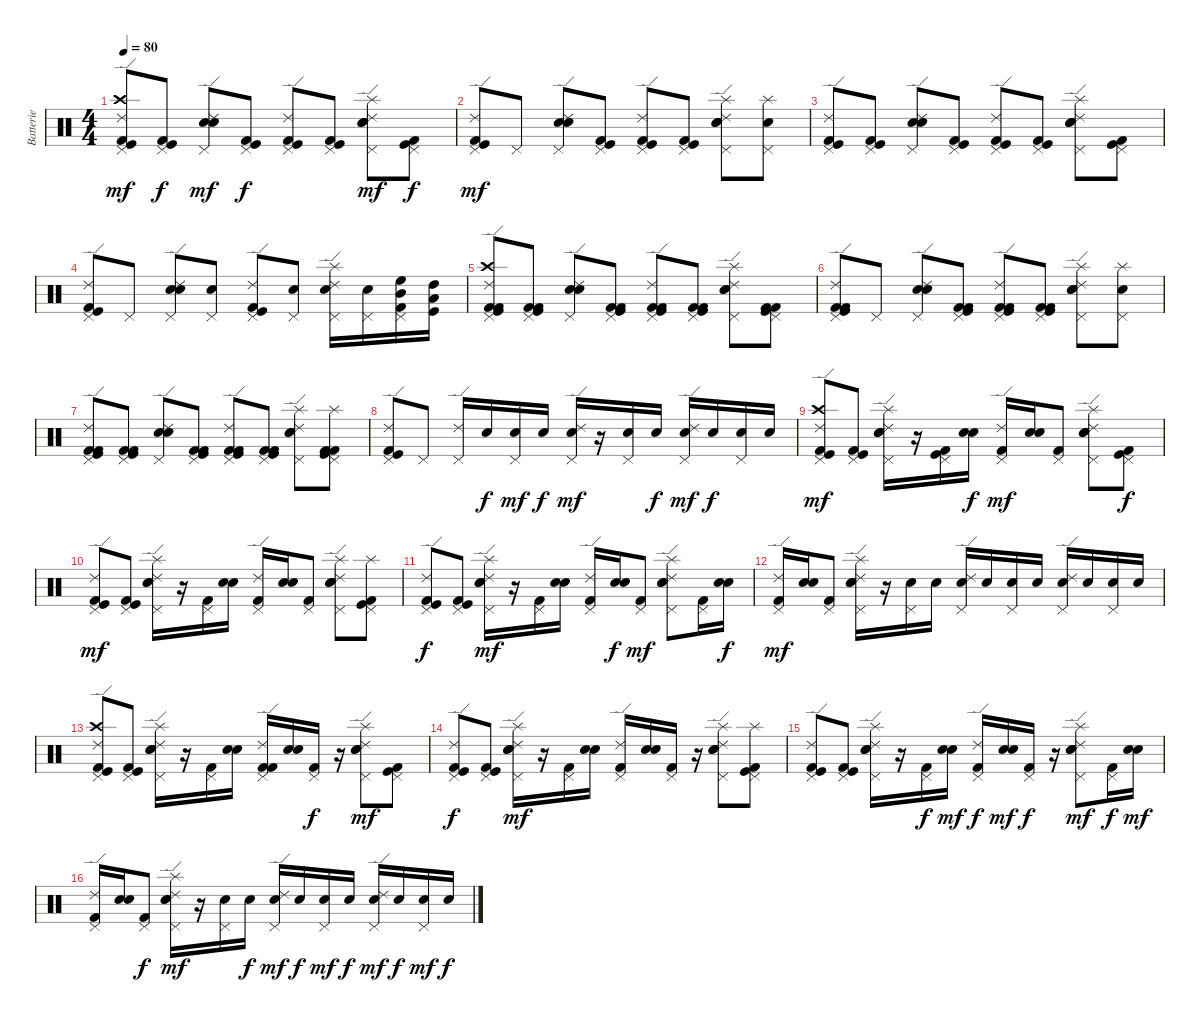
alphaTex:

\track ("Batterie" "Batterie") {instrument percussion}
\staff {score}
\articulation defaults
\ts (4 4)
\tempo 80
\clef neutral
\ks c
("Pedal Hi-Hat (hit)" "Ride (edge) 2" "Crash high (hit)" "Kick (hit)" "Kick (hit) 2").8{dy mf} ("Pedal Hi-Hat (hit)" "Kick (hit)" "Kick (hit) 2").8{dy f} ("Pedal Hi-Hat (hit)" "Ride (edge) 2" "Snare (hit) 2" "Electric Snare (hit)").8{dy mf} ("Pedal Hi-Hat (hit)" "Kick (hit)" "Kick (hit) 2").8{dy f} ("Pedal Hi-Hat (hit)" "Ride (edge) 2" "Kick (hit)" "Kick (hit) 2").8 ("Pedal Hi-Hat (hit)" "Kick (hit)" "Kick (hit) 2").8 ("Pedal Hi-Hat (hit)" "Ride (edge) 2" "Snare (hit) 2" "Electric Snare (hit)" "Splash (hit)").8{dy mf} ("Pedal Hi-Hat (hit)" "Kick (hit)" "Kick (hit) 2").8{dy f} |
("Pedal Hi-Hat (hit)" "Ride (edge) 2" "Kick (hit)" "Kick (hit) 2").8{dy mf} "Pedal Hi-Hat (hit)".8 ("Pedal Hi-Hat (hit)" "Ride (edge) 2" "Snare (hit) 2" "Electric Snare (hit)").8 ("Pedal Hi-Hat (hit)" "Kick (hit)" "Kick (hit) 2").8 ("Pedal Hi-Hat (hit)" "Ride (edge) 2" "Kick (hit)" "Kick (hit) 2").8 ("Pedal Hi-Hat (hit)" "Kick (hit)" "Kick (hit) 2").8 ("Pedal Hi-Hat (hit)" "Ride (edge) 2" "Snare (hit) 2" "Electric Snare (hit)" "Splash (hit)").8 ("Pedal Hi-Hat (hit)" "Splash (hit)" "Snare (hit) 2").8 |
("Pedal Hi-Hat (hit)" "Ride (edge) 2" "Kick (hit)" "Kick (hit) 2").8 ("Pedal Hi-Hat (hit)" "Kick (hit)" "Kick (hit) 2").8 ("Pedal Hi-Hat (hit)" "Ride (edge) 2" "Snare (hit) 2" "Electric Snare (hit)").8 ("Pedal Hi-Hat (hit)" "Kick (hit)" "Kick (hit) 2").8 ("Pedal Hi-Hat (hit)" "Ride (edge) 2" "Kick (hit)" "Kick (hit) 2").8 ("Pedal Hi-Hat (hit)" "Kick (hit)" "Kick (hit) 2").8 ("Pedal Hi-Hat (hit)" "Ride (edge) 2" "Snare (hit) 2" "Electric Snare (hit)" "Splash (hit)").8 ("Pedal Hi-Hat (hit)" "Kick (hit)" "Kick (hit) 2").8 |
("Pedal Hi-Hat (hit)" "Ride (edge) 2" "Kick (hit)" "Kick (hit) 2").8 "Pedal Hi-Hat (hit)".8 ("Pedal Hi-Hat (hit)" "Ride (edge) 2" "Snare (hit) 2" "Electric Snare (hit)").8 ("Pedal Hi-Hat (hit)" "Snare (hit) 2").8 ("Pedal Hi-Hat (hit)" "Ride (edge) 2" "Kick (hit)" "Kick (hit) 2").8 ("Pedal Hi-Hat (hit)" "Snare (hit) 2").8 ("Pedal Hi-Hat (hit)" "Ride (edge) 2" "Snare (hit) 2" "Splash (hit)").16 ("Pedal Hi-Hat (hit)" "Snare (hit) 2").16 ("Pedal Hi-Hat (hit)" "Mid Tom (hit)" "High Floor Tom (hit)" "Kick (hit) 2").16 ("High Tom (hit)" "Low Tom (hit)" "Kick (hit)").16 |
("Pedal Hi-Hat (hit)" "Ride (edge) 2" "Kick (hit) 2" "Kick (hit)" "Crash high (hit)" "Kick (hit) 2").8 ("Pedal Hi-Hat (hit)" "Kick (hit)" "Kick (hit) 2" "Kick (hit) 2").8 ("Pedal Hi-Hat (hit)" "Ride (edge) 2" "Snare (hit) 2" "Electric Snare (hit)").8 ("Pedal Hi-Hat (hit)" "Kick (hit)" "Kick (hit) 2" "Kick (hit) 2").8 ("Pedal Hi-Hat (hit)" "Ride (edge) 2" "Kick (hit)" "Kick (hit) 2" "Kick (hit) 2").8 ("Pedal Hi-Hat (hit)" "Kick (hit)" "Kick (hit) 2" "Kick (hit) 2").8 ("Pedal Hi-Hat (hit)" "Ride (edge) 2" "Snare (hit) 2" "Electric Snare (hit)" "Splash (hit)").8 ("Pedal Hi-Hat (hit)" "Kick (hit)" "Kick (hit) 2" "Kick (hit) 2").8 |
("Kick (hit)" "Kick (hit) 2" "Ride (edge) 2" "Pedal Hi-Hat (hit)" "Kick (hit) 2").8 "Pedal Hi-Hat (hit)".8 ("Electric Snare (hit)" "Snare (hit) 2" "Ride (edge) 2" "Pedal Hi-Hat (hit)").8 ("Kick (hit) 2" "Kick (hit)" "Pedal Hi-Hat (hit)" "Kick (hit) 2").8 ("Kick (hit) 2" "Kick (hit)" "Ride (edge) 2" "Pedal Hi-Hat (hit)" "Kick (hit) 2").8 ("Kick (hit) 2" "Kick (hit)" "Pedal Hi-Hat (hit)" "Kick (hit) 2").8 ("Electric Snare (hit)" "Snare (hit) 2" "Ride (edge) 2" "Pedal Hi-Hat (hit)" "Splash (hit)").8 ("Pedal Hi-Hat (hit)" "Snare (hit) 2" "Splash (hit)").8 |
("Kick (hit)" "Kick (hit) 2" "Ride (edge) 2" "Pedal Hi-Hat (hit)" "Kick (hit) 2").8 ("Kick (hit) 2" "Kick (hit)" "Pedal Hi-Hat (hit)" "Kick (hit) 2").8 ("Electric Snare (hit)" "Snare (hit) 2" "Ride (edge) 2" "Pedal Hi-Hat (hit)").8 ("Kick (hit) 2" "Kick (hit)" "Pedal Hi-Hat (hit)" "Kick (hit) 2").8 ("Kick (hit) 2" "Kick (hit)" "Ride (edge) 2" "Pedal Hi-Hat (hit)" "Kick (hit) 2").8 ("Kick (hit) 2" "Kick (hit)" "Pedal Hi-Hat (hit)" "Kick (hit) 2").8 ("Splash (hit)" "Electric Snare (hit)" "Snare (hit) 2" "Ride (edge) 2" "Pedal Hi-Hat (hit)").8 ("Splash (hit)" "Kick (hit) 2" "Kick (hit)" "Pedal Hi-Hat (hit)" "Kick (hit) 2").8 |
("Pedal Hi-Hat (hit)" "Ride (edge) 2" "Kick (hit)" "Kick (hit) 2").8 "Pedal Hi-Hat (hit)".8 ("Pedal Hi-Hat (hit)" "Ride (edge) 2").16 "Snare (hit) 2".16{dy f} ("Pedal Hi-Hat (hit)" "Snare (hit) 2").16{dy mf} "Snare (hit) 2".16{dy f} ("Pedal Hi-Hat (hit)" "Ride (edge) 2" "Snare (hit) 2").16{dy mf} r.16 ("Pedal Hi-Hat (hit)" "Snare (hit) 2").16 "Snare (hit) 2".16{dy f} ("Pedal Hi-Hat (hit)" "Ride (edge) 2" "Snare (hit) 2").16{dy mf} "Snare (hit) 2".16{dy f} ("Pedal Hi-Hat (hit)" "Snare (hit) 2").16 "Snare (hit) 2".16 |
("Pedal Hi-Hat (hit)" "Ride (edge) 2" "Crash high (hit)" "Kick (hit)" "Kick (hit) 2").8{dy mf} ("Pedal Hi-Hat (hit)" "Kick (hit)" "Kick (hit) 2").8 ("Pedal Hi-Hat (hit)" "Ride (edge) 2" "Snare (hit) 2" "Electric Snare (hit)" "Splash (hit)").16 r.16 ("Pedal Hi-Hat (hit)" "Kick (hit)" "Kick (hit) 2").16 ("Electric Snare (hit)" "Snare (hit) 2").16{dy f} ("Pedal Hi-Hat (hit)" "Ride (edge) 2" "Kick (hit) 2").16{dy mf} ("Electric Snare (hit)" "Snare (hit) 2").16 ("Pedal Hi-Hat (hit)" "Kick (hit) 2").8 ("Pedal Hi-Hat (hit)" "Electric Snare (hit)" "Snare (hit) 2" "Ride (edge) 2" "Splash (hit)").8 ("Pedal Hi-Hat (hit)" "Kick (hit)" "Kick (hit) 2").8{dy f} |
("Pedal Hi-Hat (hit)" "Ride (edge) 2" "Kick (hit)" "Kick (hit) 2").8{dy mf} ("Pedal Hi-Hat (hit)" "Kick (hit)" "Kick (hit) 2").8 ("Pedal Hi-Hat (hit)" "Ride (edge) 2" "Snare (hit) 2" "Electric Snare (hit)" "Splash (hit)").16 r.16 ("Pedal Hi-Hat (hit)" "Kick (hit) 2").16 ("Electric Snare (hit)" "Snare (hit) 2").16 ("Pedal Hi-Hat (hit)" "Ride (edge) 2" "Kick (hit) 2").16 ("Electric Snare (hit)" "Snare (hit) 2").16 ("Pedal Hi-Hat (hit)" "Kick (hit) 2").8 ("Pedal Hi-Hat (hit)" "Ride (edge) 2" "Snare (hit) 2" "Electric Snare (hit)" "Splash (hit)").8 ("Pedal Hi-Hat (hit)" "Splash (hit)" "Kick (hit)" "Kick (hit) 2").8 |
("Pedal Hi-Hat (hit)" "Ride (edge) 2" "Kick (hit)" "Kick (hit) 2").8{dy f} ("Pedal Hi-Hat (hit)" "Kick (hit)" "Kick (hit) 2").8 ("Pedal Hi-Hat (hit)" "Ride (edge) 2" "Snare (hit) 2" "Electric Snare (hit)" "Splash (hit)").16{dy mf} r.16 ("Pedal Hi-Hat (hit)" "Kick (hit) 2").16 ("Electric Snare (hit)" "Snare (hit) 2").16 ("Ride (edge) 2" "Pedal Hi-Hat (hit)" "Kick (hit) 2").16 ("Electric Snare (hit)" "Snare (hit) 2").16{dy f} ("Pedal Hi-Hat (hit)" "Kick (hit) 2").8{dy mf} ("Pedal Hi-Hat (hit)" "Ride (edge) 2" "Snare (hit) 2" "Electric Snare (hit)" "Splash (hit)").8 ("Pedal Hi-Hat (hit)" "Kick (hit) 2").16 ("Electric Snare (hit)" "Snare (hit) 2").16{dy f} |
("Pedal Hi-Hat (hit)" "Ride (edge) 2" "Kick (hit) 2").16{dy mf} ("Snare (hit) 2" "Electric Snare (hit)").16 ("Pedal Hi-Hat (hit)" "Kick (hit) 2").8 ("Pedal Hi-Hat (hit)" "Ride (edge) 2" "Snare (hit) 2" "Electric Snare (hit)" "Splash (hit)").16 r.16 ("Pedal Hi-Hat (hit)" "Snare (hit) 2").16 "Snare (hit) 2".16 ("Pedal Hi-Hat (hit)" "Ride (edge) 2" "Snare (hit) 2").16 "Snare (hit) 2".16 ("Pedal Hi-Hat (hit)" "Snare (hit) 2").16 "Snare (hit) 2".16 ("Pedal Hi-Hat (hit)" "Ride (edge) 2" "Snare (hit) 2").16 "Snare (hit) 2".16 ("Pedal Hi-Hat (hit)" "Snare (hit) 2").16 "Snare (hit) 2".16 |
("Pedal Hi-Hat (hit)" "Ride (edge) 2" "Crash high (hit)" "Kick (hit)" "Kick (hit) 2").8 ("Pedal Hi-Hat (hit)" "Kick (hit)" "Kick (hit) 2").8 ("Pedal Hi-Hat (hit)" "Ride (edge) 2" "Snare (hit) 2" "Electric Snare (hit)" "Splash (hit)").16 r.16 ("Pedal Hi-Hat (hit)" "Kick (hit) 2").16 ("Electric Snare (hit)" "Snare (hit) 2").16 ("Kick (hit) 2" "Ride (edge) 2" "Pedal Hi-Hat (hit)" "Kick (hit) 2").16 ("Electric Snare (hit)" "Snare (hit) 2").16 ("Pedal Hi-Hat (hit)" "Kick (hit) 2").16{dy f} r.16 ("Pedal Hi-Hat (hit)" "Ride (edge) 2" "Snare (hit) 2" "Electric Snare (hit)" "Splash (hit)").8{dy mf} ("Pedal Hi-Hat (hit)" "Kick (hit)" "Kick (hit) 2").8 |
("Pedal Hi-Hat (hit)" "Ride (edge) 2" "Kick (hit)" "Kick (hit) 2").8{dy f} ("Pedal Hi-Hat (hit)" "Kick (hit)" "Kick (hit) 2").8 ("Pedal Hi-Hat (hit)" "Ride (edge) 2" "Snare (hit) 2" "Electric Snare (hit)" "Splash (hit)").16{dy mf} r.16 ("Pedal Hi-Hat (hit)" "Kick (hit) 2").16 ("Electric Snare (hit)" "Snare (hit) 2").16 ("Pedal Hi-Hat (hit)" "Ride (edge) 2" "Kick (hit) 2").16 ("Electric Snare (hit)" "Snare (hit) 2").16 ("Pedal Hi-Hat (hit)" "Kick (hit) 2").16 r.16 ("Pedal Hi-Hat (hit)" "Electric Snare (hit)" "Snare (hit) 2" "Ride (edge) 2" "Splash (hit)").8 ("Pedal Hi-Hat (hit)" "Splash (hit)" "Kick (hit)" "Kick (hit) 2").8 |
("Pedal Hi-Hat (hit)" "Ride (edge) 2" "Kick (hit)" "Kick (hit) 2").8 ("Pedal Hi-Hat (hit)" "Kick (hit)" "Kick (hit) 2").8 ("Pedal Hi-Hat (hit)" "Ride (edge) 2" "Snare (hit) 2" "Electric Snare (hit)" "Splash (hit)").16 r.16 ("Pedal Hi-Hat (hit)" "Kick (hit) 2").16{dy f} ("Electric Snare (hit)" "Snare (hit) 2").16{dy mf} ("Pedal Hi-Hat (hit)" "Ride (edge) 2" "Kick (hit) 2").16{dy f} ("Electric Snare (hit)" "Snare (hit) 2").16{dy mf} ("Pedal Hi-Hat (hit)" "Kick (hit) 2").16{dy f} r.16 ("Pedal Hi-Hat (hit)" "Ride (edge) 2" "Snare (hit) 2" "Electric Snare (hit)" "Splash (hit)").8{dy mf} ("Pedal Hi-Hat (hit)" "Kick (hit) 2").16{dy f} ("Electric Snare (hit)" "Snare (hit) 2").16{dy mf} |
("Pedal Hi-Hat (hit)" "Ride (edge) 2" "Kick (hit) 2").16 ("Electric Snare (hit)" "Snare (hit) 2").16 ("Pedal Hi-Hat (hit)" "Kick (hit) 2").8{dy f} ("Pedal Hi-Hat (hit)" "Ride (edge) 2" "Snare (hit) 2" "Electric Snare (hit)" "Splash (hit)").16{dy mf} r.16 ("Pedal Hi-Hat (hit)" "Snare (hit) 2").16 "Snare (hit) 2".16{dy f} ("Pedal Hi-Hat (hit)" "Ride (edge) 2" "Snare (hit) 2").16{dy mf} "Snare (hit) 2".16{dy f} ("Pedal Hi-Hat (hit)" "Snare (hit) 2").16{dy mf} "Snare (hit) 2".16{dy f} ("Pedal Hi-Hat (hit)" "Ride (edge) 2" "Snare (hit) 2").16{dy mf} "Snare (hit) 2".16{dy f} ("Pedal Hi-Hat (hit)" "Snare (hit) 2").16{dy mf} "Snare (hit) 2".16{dy f}
